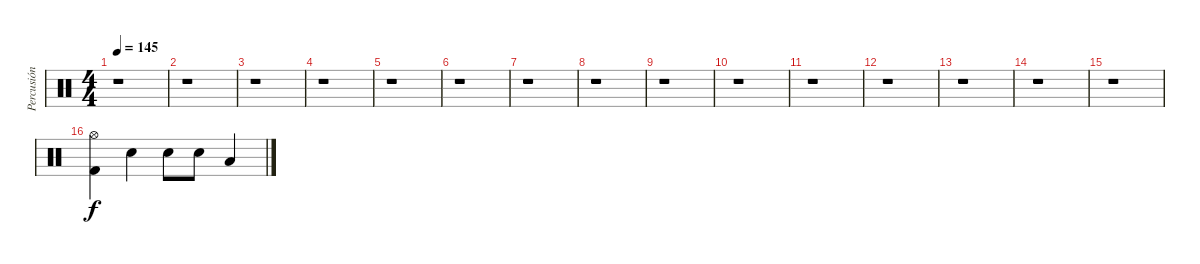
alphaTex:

\track ("Percusión" "Percusión") {instrument percussion}
\staff {score}
\articulation defaults
\ts (4 4)
\tempo 145
\clef neutral
\ks c
r.1{dy f} |
r.1 |
r.1 |
r.1 |
r.1 |
r.1 |
r.1 |
r.1 |
r.1 |
r.1 |
r.1 |
r.1 |
r.1 |
r.1 |
r.1 |
("Kick (hit) 2" "Hi-Hat (open)").4 "Electric Snare (hit)".4 "Electric Snare (hit)".8 "Electric Snare (hit)".8 "Low Tom (hit)".4
